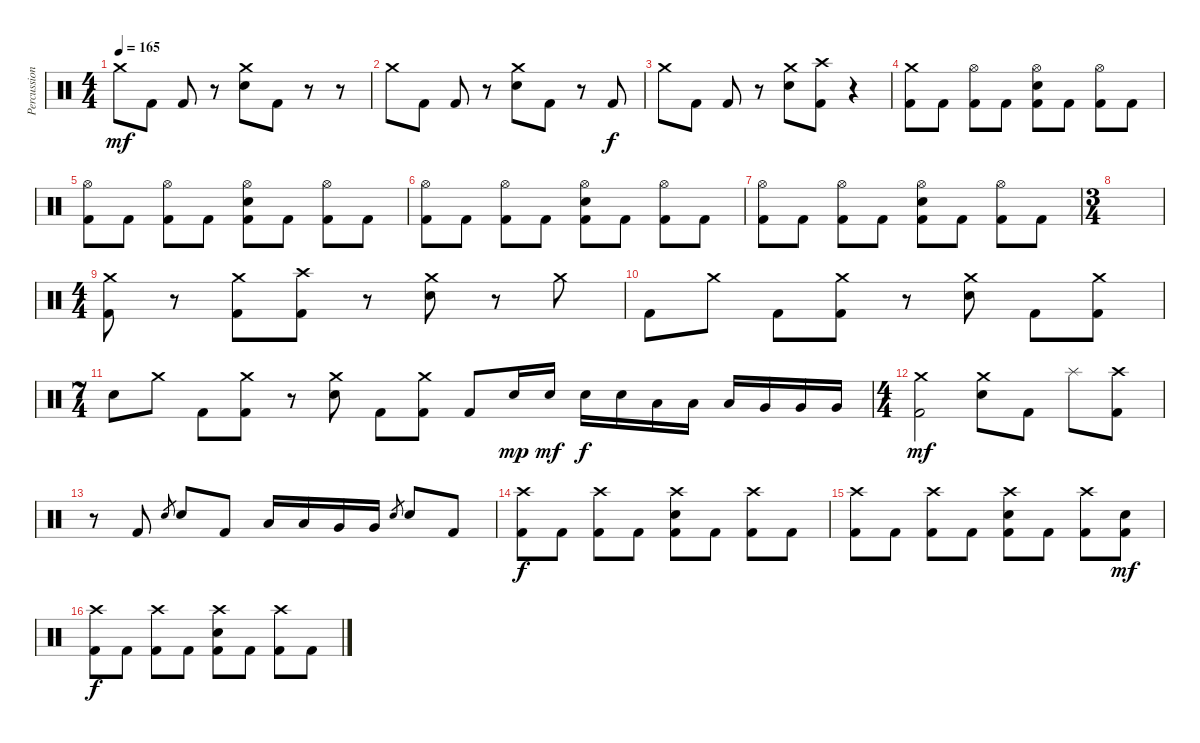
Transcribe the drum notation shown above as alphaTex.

\track ("Percussion" "Percussion") {instrument percussion}
\staff {score}
\articulation defaults
\ts (4 4)
\tempo 165
\clef neutral
\ks c "Crash medium (hit)".8{dy mf} "Kick (hit) 2".8 "Kick (hit) 2".8
r.8 ("Crash medium (hit)" "Electric Snare (hit)").8 "Kick (hit) 2".8 r.8 r.8 |
"Crash medium (hit)".8 "Kick (hit) 2".8 "Kick (hit) 2".8 r.8 ("Crash medium (hit)" "Electric Snare (hit)").8 "Kick (hit) 2".8 r.8 "Kick (hit) 2".8{dy f} |
"Crash medium (hit)".8 "Kick (hit) 2".8 "Kick (hit) 2".8 r.8 ("Crash medium (hit)" "Electric Snare (hit)").8 ("Crash high (hit)" "Kick (hit) 2").8 r.4 |
("Crash medium (hit)" "Kick (hit) 2").8 "Kick (hit) 2".8 ("Hi-Hat (open)" "Kick (hit) 2").8 "Kick (hit) 2".8 ("Hi-Hat (open)" "Electric Snare (hit)" "Kick (hit) 2").8 "Kick (hit) 2".8 ("Hi-Hat (open)" "Kick (hit) 2").8 "Kick (hit) 2".8 |
("Hi-Hat (open)" "Kick (hit) 2").8 "Kick (hit) 2".8 ("Hi-Hat (open)" "Kick (hit) 2").8 "Kick (hit) 2".8 ("Hi-Hat (open)" "Electric Snare (hit)" "Kick (hit) 2").8 "Kick (hit) 2".8 ("Hi-Hat (open)" "Kick (hit) 2").8 "Kick (hit) 2".8 |
("Hi-Hat (open)" "Kick (hit) 2").8 "Kick (hit) 2".8 ("Hi-Hat (open)" "Kick (hit) 2").8 "Kick (hit) 2".8 ("Hi-Hat (open)" "Electric Snare (hit)" "Kick (hit) 2").8 "Kick (hit) 2".8 ("Hi-Hat (open)" "Kick (hit) 2").8 "Kick (hit) 2".8 |
("Hi-Hat (open)" "Kick (hit) 2").8 "Kick (hit) 2".8 ("Hi-Hat (open)" "Kick (hit) 2").8 "Kick (hit) 2".8 ("Hi-Hat (open)" "Electric Snare (hit)" "Kick (hit) 2").8 "Kick (hit) 2".8 ("Hi-Hat (open)" "Kick (hit) 2").8 "Kick (hit) 2".8 |
\ts (3 4)
|
\ts (4 4)
("Crash medium (hit)" "Kick (hit) 2").8 r.8 ("Crash medium (hit)" "Kick (hit) 2").8 ("Crash high (hit)" "Kick (hit) 2").8 r.8 ("Crash medium (hit)" "Electric Snare (hit)").8 r.8 "Crash medium (hit)".8 |
"Kick (hit) 2".8 "Crash medium (hit)".8 "Kick (hit) 2".8 ("Crash medium (hit)" "Kick (hit) 2").8 r.8 ("Crash medium (hit)" "Electric Snare (hit)").8 "Kick (hit) 2".8 ("Crash medium (hit)" "Kick (hit) 2").8 |
\ts (7 4)
"Electric Snare (hit)".8 "Crash medium (hit)".8 "Kick (hit) 2".8 ("Crash medium (hit)" "Kick (hit) 2").8 r.8 ("Crash medium (hit)" "Electric Snare (hit)").8 "Kick (hit) 2".8 ("Crash medium (hit)" "Kick (hit) 2").8 "Kick (hit) 2".8 "Electric Snare (hit)".16{dy mp} "Electric Snare (hit)".16{dy mf} "Electric Snare (hit)".16{dy f} "Electric Snare (hit)".16 "Low Tom (hit)".16 "Low Tom (hit)".16 "Low Tom (hit)".16 "Very Low Tom (hit)".16 "Very Low Tom (hit)".16 "Very Low Tom (hit)".16 |
\ts (4 4)
("Crash medium (hit)" "Kick (hit) 2").2{dy mf} ("Crash medium (hit)" "Electric Snare (hit)").8 "Kick (hit) 2".8 "Splash (hit)".8 ("Crash high (hit)" "Kick (hit) 2").8 |
r.8 "Kick (hit) 2".8 "Electric Snare (hit)".8{gr} "Electric Snare (hit)".8 "Kick (hit) 2".8 "Low Tom (hit)".16 "Low Tom (hit)".16 "Very Low Tom (hit)".16 "Very Low Tom (hit)".16 "Electric Snare (hit)".8{gr} "Electric Snare (hit)".8 "Kick (hit) 2".8 |
("Crash high (hit)" "Kick (hit) 2").8{dy f} "Kick (hit) 2".8 ("Crash high (hit)" "Kick (hit) 2").8 "Kick (hit) 2".8 ("Crash high (hit)" "Electric Snare (hit)" "Kick (hit) 2").8 "Kick (hit) 2".8 ("Crash high (hit)" "Kick (hit) 2").8 "Kick (hit) 2".8 |
("Crash high (hit)" "Kick (hit) 2").8 "Kick (hit) 2".8 ("Crash high (hit)" "Kick (hit) 2").8 "Kick (hit) 2".8 ("Crash high (hit)" "Electric Snare (hit)" "Kick (hit) 2").8 "Kick (hit) 2".8 ("Crash high (hit)" "Kick (hit) 2").8 ("Electric Snare (hit)" "Kick (hit) 2").8{dy mf} |
("Crash high (hit)" "Kick (hit) 2").8{dy f} "Kick (hit) 2".8 ("Crash high (hit)" "Kick (hit) 2").8 "Kick (hit) 2".8 ("Crash high (hit)" "Electric Snare (hit)" "Kick (hit) 2").8 "Kick (hit) 2".8 ("Crash high (hit)" "Kick (hit) 2").8 "Kick (hit) 2".8
